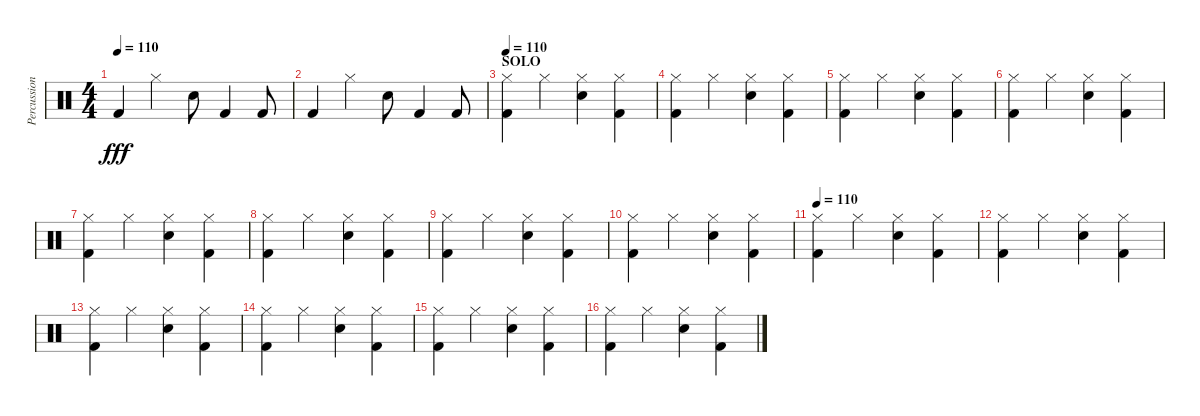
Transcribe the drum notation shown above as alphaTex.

\track ("Percussion" "Percussion") {instrument percussion}
\staff {score}
\articulation defaults
\ts (4 4)
\tempo 110
\clef neutral
\ks c "Kick (hit) 2".4{dy fff} "Hi-Hat (closed)".4 "Electric Snare (hit)".8 "Kick (hit) 2".4 "Kick (hit) 2".8
|
"Kick (hit) 2".4 "Hi-Hat (closed)".4 "Electric Snare (hit)".8 "Kick (hit) 2".4 "Kick (hit) 2".8 |
\section ("" "SOLO")
\tempo 110
("Kick (hit) 2" "Hi-Hat (closed)").4 "Hi-Hat (closed)".4 ("Electric Snare (hit)" "Hi-Hat (closed)").4 ("Kick (hit) 2" "Hi-Hat (closed)").4 |
("Kick (hit) 2" "Hi-Hat (closed)").4 "Hi-Hat (closed)".4 ("Electric Snare (hit)" "Hi-Hat (closed)").4 ("Kick (hit) 2" "Hi-Hat (closed)").4 |
("Kick (hit) 2" "Hi-Hat (closed)").4 "Hi-Hat (closed)".4 ("Electric Snare (hit)" "Hi-Hat (closed)").4 ("Kick (hit) 2" "Hi-Hat (closed)").4 |
("Kick (hit) 2" "Hi-Hat (closed)").4 "Hi-Hat (closed)".4 ("Electric Snare (hit)" "Hi-Hat (closed)").4 ("Kick (hit) 2" "Hi-Hat (closed)").4 |
("Kick (hit) 2" "Hi-Hat (closed)").4 "Hi-Hat (closed)".4 ("Electric Snare (hit)" "Hi-Hat (closed)").4 ("Kick (hit) 2" "Hi-Hat (closed)").4 |
("Kick (hit) 2" "Hi-Hat (closed)").4 "Hi-Hat (closed)".4 ("Electric Snare (hit)" "Hi-Hat (closed)").4 ("Kick (hit) 2" "Hi-Hat (closed)").4 |
("Kick (hit) 2" "Hi-Hat (closed)").4 "Hi-Hat (closed)".4 ("Electric Snare (hit)" "Hi-Hat (closed)").4 ("Kick (hit) 2" "Hi-Hat (closed)").4 |
("Kick (hit) 2" "Hi-Hat (closed)").4 "Hi-Hat (closed)".4 ("Electric Snare (hit)" "Hi-Hat (closed)").4 ("Kick (hit) 2" "Hi-Hat (closed)").4 |
\tempo 110
("Kick (hit) 2" "Hi-Hat (closed)").4 "Hi-Hat (closed)".4 ("Electric Snare (hit)" "Hi-Hat (closed)").4 ("Kick (hit) 2" "Hi-Hat (closed)").4 |
("Kick (hit) 2" "Hi-Hat (closed)").4 "Hi-Hat (closed)".4 ("Electric Snare (hit)" "Hi-Hat (closed)").4 ("Kick (hit) 2" "Hi-Hat (closed)").4 |
("Kick (hit) 2" "Hi-Hat (closed)").4 "Hi-Hat (closed)".4 ("Electric Snare (hit)" "Hi-Hat (closed)").4 ("Kick (hit) 2" "Hi-Hat (closed)").4 |
("Kick (hit) 2" "Hi-Hat (closed)").4 "Hi-Hat (closed)".4 ("Electric Snare (hit)" "Hi-Hat (closed)").4 ("Kick (hit) 2" "Hi-Hat (closed)").4 |
("Kick (hit) 2" "Hi-Hat (closed)").4 "Hi-Hat (closed)".4 ("Electric Snare (hit)" "Hi-Hat (closed)").4 ("Kick (hit) 2" "Hi-Hat (closed)").4 |
("Kick (hit) 2" "Hi-Hat (closed)").4 "Hi-Hat (closed)".4 ("Electric Snare (hit)" "Hi-Hat (closed)").4 ("Kick (hit) 2" "Hi-Hat (closed)").4
